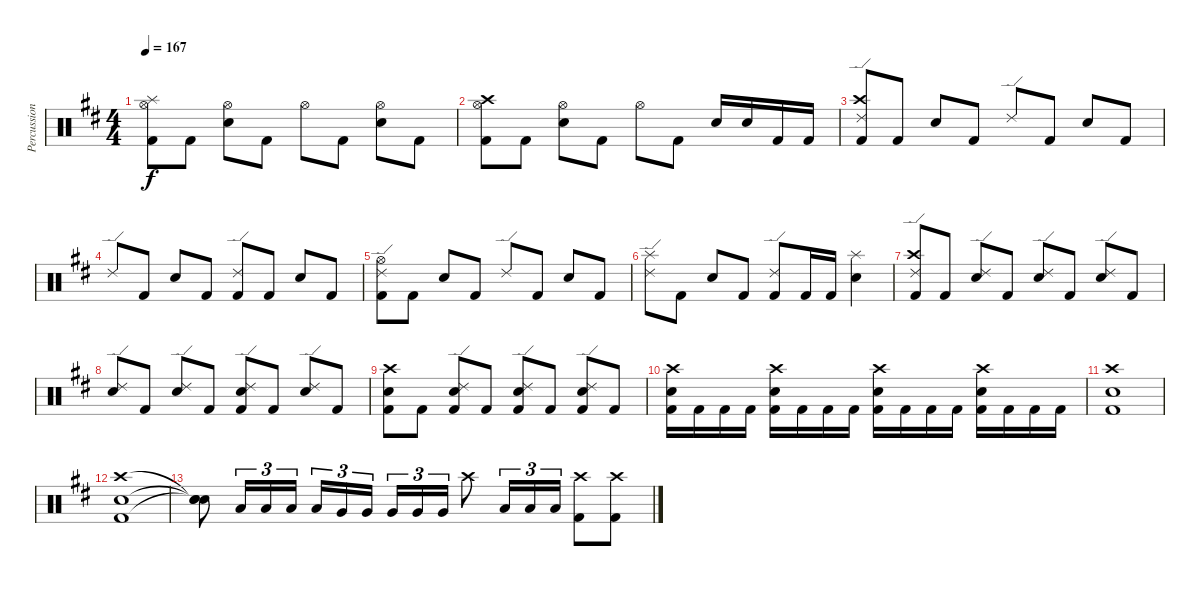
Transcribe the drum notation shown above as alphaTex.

\track ("Percussion" "Percussion") {instrument percussion}
\staff {score}
\articulation defaults
\ts (4 4)
\tempo 167
\clef neutral
\ks d
("Hi-Hat (open)" "Splash (hit)" "Kick (hit) 2").8{dy f} "Kick (hit) 2".8 ("Hi-Hat (open)" "Electric Snare (hit)").8 "Kick (hit) 2".8 "Hi-Hat (open)".8 "Kick (hit) 2".8 ("Hi-Hat (open)" "Electric Snare (hit)").8 "Kick (hit) 2".8 |
("Hi-Hat (open)" "Crash high (hit)" "Kick (hit) 2").8 "Kick (hit) 2".8 ("Hi-Hat (open)" "Electric Snare (hit)").8 "Kick (hit) 2".8 "Hi-Hat (open)".8 "Kick (hit) 2".8 "Electric Snare (hit)".16 "Electric Snare (hit)".16 "Kick (hit) 2".16 "Kick (hit) 2".16 |
("Ride (edge) 2" "Crash high (hit)" "Kick (hit) 2").8 "Kick (hit) 2".8 "Electric Snare (hit)".8 "Kick (hit) 2".8 "Ride (edge) 2".8 "Kick (hit) 2".8 "Electric Snare (hit)".8 "Kick (hit) 2".8 |
"Ride (edge) 2".8 "Kick (hit) 2".8 "Electric Snare (hit)".8 "Kick (hit) 2".8 ("Ride (edge) 2" "Kick (hit) 2").8 "Kick (hit) 2".8 "Electric Snare (hit)".8 "Kick (hit) 2".8 |
("Ride (edge) 2" "Hi-Hat (open)" "Kick (hit) 2").8 "Kick (hit) 2".8 "Electric Snare (hit)".8 "Kick (hit) 2".8 "Ride (edge) 2".8 "Kick (hit) 2".8 "Electric Snare (hit)".8 "Kick (hit) 2".8 |
("Ride (edge) 2" "Splash (hit)").8 "Kick (hit) 2".8 "Electric Snare (hit)".8 "Kick (hit) 2".8 ("Ride (edge) 2" "Kick (hit) 2").8 "Kick (hit) 2".16 "Kick (hit) 2".16 ("Splash (hit)" "Electric Snare (hit)").4 |
("Ride (edge) 2" "Crash high (hit)" "Kick (hit) 2").8 "Kick (hit) 2".8 ("Ride (edge) 2" "Electric Snare (hit)").8 "Kick (hit) 2".8 ("Ride (edge) 2" "Electric Snare (hit)").8 "Kick (hit) 2".8 ("Ride (edge) 2" "Electric Snare (hit)").8 "Kick (hit) 2".8 |
("Ride (edge) 2" "Electric Snare (hit)").8 "Kick (hit) 2".8 ("Ride (edge) 2" "Electric Snare (hit)").8 "Kick (hit) 2".8 ("Ride (edge) 2" "Electric Snare (hit)" "Kick (hit) 2").8 "Kick (hit) 2".8 ("Ride (edge) 2" "Electric Snare (hit)").8 "Kick (hit) 2".8 |
("Crash high (hit)" "Electric Snare (hit)" "Kick (hit) 2").8 "Kick (hit) 2".8 ("Ride (edge) 2" "Electric Snare (hit)" "Kick (hit) 2").8 "Kick (hit) 2".8 ("Ride (edge) 2" "Electric Snare (hit)" "Kick (hit) 2").8 "Kick (hit) 2".8 ("Ride (edge) 2" "Electric Snare (hit)" "Kick (hit) 2").8 "Kick (hit) 2".8 |
("Crash high (hit)" "Electric Snare (hit)" "Kick (hit) 2").16 "Kick (hit) 2".16 "Kick (hit) 2".16 "Kick (hit) 2".16 ("Crash high (hit)" "Electric Snare (hit)" "Kick (hit) 2").16 "Kick (hit) 2".16 "Kick (hit) 2".16 "Kick (hit) 2".16 ("Crash high (hit)" "Electric Snare (hit)" "Kick (hit) 2").16 "Kick (hit) 2".16 "Kick (hit) 2".16 "Kick (hit) 2".16 ("Crash high (hit)" "Electric Snare (hit)" "Kick (hit) 2").16 "Kick (hit) 2".16 "Kick (hit) 2".16 "Kick (hit) 2".16 |
("Crash high (hit)" "Electric Snare (hit)" "Kick (hit) 2").1 |
("Crash high (hit)" "Electric Snare (hit)" "Kick (hit) 2").1 |
("Snare (hit)"{t} "Snare (hit)"{t} "Snare (hit)"{t}).8 "Low Tom (hit)".16{tu (3 2)} "Low Tom (hit)".16{tu (3 2)} "Low Tom (hit)".16{tu (3 2)} "Low Tom (hit)".16{tu (3 2)} "Very Low Tom (hit)".16{tu (3 2)} "Very Low Tom (hit)".16{tu (3 2) beam splitsecondary} "Very Low Tom (hit)".16{tu (3 2)} "Very Low Tom (hit)".16{tu (3 2)} "Very Low Tom (hit)".16{tu (3 2)} "Crash high (hit)".8 "Low Floor Tom (hit)".16{tu (3 2)} "Low Floor Tom (hit)".16{tu (3 2)} "Low Floor Tom (hit)".16{tu (3 2)} ("Crash high (hit)" "Kick (hit) 2").8 ("Crash high (hit)" "Kick (hit) 2").8
